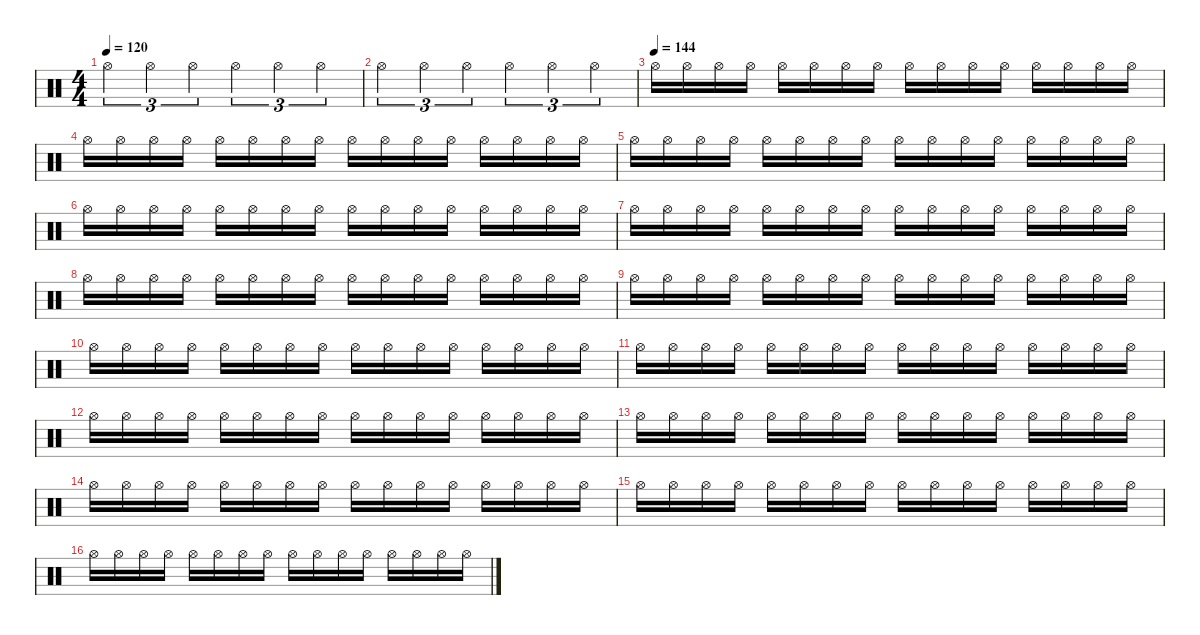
\defaultSystemsLayout 4
\hideDynamics
\bracketExtendMode nobrackets
\singleTrackTrackNamePolicy hidden
\multiTrackTrackNamePolicy hidden
\firstSystemTrackNameMode fullname
\firstSystemTrackNameOrientation horizontal
\otherSystemsTrackNameOrientation horizontal
\track ("Percussion" "drm.") {instrument percussion}
\staff {score}
\articulation defaults
\ts (4 4)
\tempo 120
\clef neutral
\ks c "Hi-Hat (open)".4{tu (3 2) dy f beam Down} "Hi-Hat (open)".4{tu (3 2) beam Down} "Hi-Hat (open)".4{tu (3 2) beam Down} "Hi-Hat (open)".4{tu (3 2) beam Down} "Hi-Hat (open)".4{tu (3 2) beam Down} "Hi-Hat (open)".4{tu (3 2) beam Down}
|
"Hi-Hat (open)".4{tu (3 2) beam Down} "Hi-Hat (open)".4{tu (3 2) beam Down} "Hi-Hat (open)".4{tu (3 2) beam Down} "Hi-Hat (open)".4{tu (3 2) beam Down} "Hi-Hat (open)".4{tu (3 2) beam Down} "Hi-Hat (open)".4{tu (3 2) beam Down} |
\tempo (144)
"Hi-Hat (open)".16{beam Down} "Hi-Hat (open)".16{beam Down} "Hi-Hat (open)".16{beam Down} "Hi-Hat (open)".16{beam Down} "Hi-Hat (open)".16{beam Down} "Hi-Hat (open)".16{beam Down} "Hi-Hat (open)".16{beam Down} "Hi-Hat (open)".16{beam Down} "Hi-Hat (open)".16{beam Down} "Hi-Hat (open)".16{beam Down} "Hi-Hat (open)".16{beam Down} "Hi-Hat (open)".16{beam Down} "Hi-Hat (open)".16{beam Down} "Hi-Hat (open)".16{beam Down} "Hi-Hat (open)".16{beam Down} "Hi-Hat (open)".16{beam Down} |
"Hi-Hat (open)".16{beam Down} "Hi-Hat (open)".16{beam Down} "Hi-Hat (open)".16{beam Down} "Hi-Hat (open)".16{beam Down} "Hi-Hat (open)".16{beam Down} "Hi-Hat (open)".16{beam Down} "Hi-Hat (open)".16{beam Down} "Hi-Hat (open)".16{beam Down} "Hi-Hat (open)".16{beam Down} "Hi-Hat (open)".16{beam Down} "Hi-Hat (open)".16{beam Down} "Hi-Hat (open)".16{beam Down} "Hi-Hat (open)".16{beam Down} "Hi-Hat (open)".16{beam Down} "Hi-Hat (open)".16{beam Down} "Hi-Hat (open)".16{beam Down} |
"Hi-Hat (open)".16{beam Down} "Hi-Hat (open)".16{beam Down} "Hi-Hat (open)".16{beam Down} "Hi-Hat (open)".16{beam Down} "Hi-Hat (open)".16{beam Down} "Hi-Hat (open)".16{beam Down} "Hi-Hat (open)".16{beam Down} "Hi-Hat (open)".16{beam Down} "Hi-Hat (open)".16{beam Down} "Hi-Hat (open)".16{beam Down} "Hi-Hat (open)".16{beam Down} "Hi-Hat (open)".16{beam Down} "Hi-Hat (open)".16{beam Down} "Hi-Hat (open)".16{beam Down} "Hi-Hat (open)".16{beam Down} "Hi-Hat (open)".16{beam Down} |
"Hi-Hat (open)".16{beam Down} "Hi-Hat (open)".16{beam Down} "Hi-Hat (open)".16{beam Down} "Hi-Hat (open)".16{beam Down} "Hi-Hat (open)".16{beam Down} "Hi-Hat (open)".16{beam Down} "Hi-Hat (open)".16{beam Down} "Hi-Hat (open)".16{beam Down} "Hi-Hat (open)".16{beam Down} "Hi-Hat (open)".16{beam Down} "Hi-Hat (open)".16{beam Down} "Hi-Hat (open)".16{beam Down} "Hi-Hat (open)".16{beam Down} "Hi-Hat (open)".16{beam Down} "Hi-Hat (open)".16{beam Down} "Hi-Hat (open)".16{beam Down} |
"Hi-Hat (open)".16{beam Down} "Hi-Hat (open)".16{beam Down} "Hi-Hat (open)".16{beam Down} "Hi-Hat (open)".16{beam Down} "Hi-Hat (open)".16{beam Down} "Hi-Hat (open)".16{beam Down} "Hi-Hat (open)".16{beam Down} "Hi-Hat (open)".16{beam Down} "Hi-Hat (open)".16{beam Down} "Hi-Hat (open)".16{beam Down} "Hi-Hat (open)".16{beam Down} "Hi-Hat (open)".16{beam Down} "Hi-Hat (open)".16{beam Down} "Hi-Hat (open)".16{beam Down} "Hi-Hat (open)".16{beam Down} "Hi-Hat (open)".16{beam Down} |
"Hi-Hat (open)".16{beam Down} "Hi-Hat (open)".16{beam Down} "Hi-Hat (open)".16{beam Down} "Hi-Hat (open)".16{beam Down} "Hi-Hat (open)".16{beam Down} "Hi-Hat (open)".16{beam Down} "Hi-Hat (open)".16{beam Down} "Hi-Hat (open)".16{beam Down} "Hi-Hat (open)".16{beam Down} "Hi-Hat (open)".16{beam Down} "Hi-Hat (open)".16{beam Down} "Hi-Hat (open)".16{beam Down} "Hi-Hat (open)".16{beam Down} "Hi-Hat (open)".16{beam Down} "Hi-Hat (open)".16{beam Down} "Hi-Hat (open)".16{beam Down} |
"Hi-Hat (open)".16{beam Down} "Hi-Hat (open)".16{beam Down} "Hi-Hat (open)".16{beam Down} "Hi-Hat (open)".16{beam Down} "Hi-Hat (open)".16{beam Down} "Hi-Hat (open)".16{beam Down} "Hi-Hat (open)".16{beam Down} "Hi-Hat (open)".16{beam Down} "Hi-Hat (open)".16{beam Down} "Hi-Hat (open)".16{beam Down} "Hi-Hat (open)".16{beam Down} "Hi-Hat (open)".16{beam Down} "Hi-Hat (open)".16{beam Down} "Hi-Hat (open)".16{beam Down} "Hi-Hat (open)".16{beam Down} "Hi-Hat (open)".16{beam Down} |
"Hi-Hat (open)".16{beam Down} "Hi-Hat (open)".16{beam Down} "Hi-Hat (open)".16{beam Down} "Hi-Hat (open)".16{beam Down} "Hi-Hat (open)".16{beam Down} "Hi-Hat (open)".16{beam Down} "Hi-Hat (open)".16{beam Down} "Hi-Hat (open)".16{beam Down} "Hi-Hat (open)".16{beam Down} "Hi-Hat (open)".16{beam Down} "Hi-Hat (open)".16{beam Down} "Hi-Hat (open)".16{beam Down} "Hi-Hat (open)".16{beam Down} "Hi-Hat (open)".16{beam Down} "Hi-Hat (open)".16{beam Down} "Hi-Hat (open)".16{beam Down} |
"Hi-Hat (open)".16{beam Down} "Hi-Hat (open)".16{beam Down} "Hi-Hat (open)".16{beam Down} "Hi-Hat (open)".16{beam Down} "Hi-Hat (open)".16{beam Down} "Hi-Hat (open)".16{beam Down} "Hi-Hat (open)".16{beam Down} "Hi-Hat (open)".16{beam Down} "Hi-Hat (open)".16{beam Down} "Hi-Hat (open)".16{beam Down} "Hi-Hat (open)".16{beam Down} "Hi-Hat (open)".16{beam Down} "Hi-Hat (open)".16{beam Down} "Hi-Hat (open)".16{beam Down} "Hi-Hat (open)".16{beam Down} "Hi-Hat (open)".16{beam Down} |
"Hi-Hat (open)".16{beam Down} "Hi-Hat (open)".16{beam Down} "Hi-Hat (open)".16{beam Down} "Hi-Hat (open)".16{beam Down} "Hi-Hat (open)".16{beam Down} "Hi-Hat (open)".16{beam Down} "Hi-Hat (open)".16{beam Down} "Hi-Hat (open)".16{beam Down} "Hi-Hat (open)".16{beam Down} "Hi-Hat (open)".16{beam Down} "Hi-Hat (open)".16{beam Down} "Hi-Hat (open)".16{beam Down} "Hi-Hat (open)".16{beam Down} "Hi-Hat (open)".16{beam Down} "Hi-Hat (open)".16{beam Down} "Hi-Hat (open)".16{beam Down} |
"Hi-Hat (open)".16{beam Down} "Hi-Hat (open)".16{beam Down} "Hi-Hat (open)".16{beam Down} "Hi-Hat (open)".16{beam Down} "Hi-Hat (open)".16{beam Down} "Hi-Hat (open)".16{beam Down} "Hi-Hat (open)".16{beam Down} "Hi-Hat (open)".16{beam Down} "Hi-Hat (open)".16{beam Down} "Hi-Hat (open)".16{beam Down} "Hi-Hat (open)".16{beam Down} "Hi-Hat (open)".16{beam Down} "Hi-Hat (open)".16{beam Down} "Hi-Hat (open)".16{beam Down} "Hi-Hat (open)".16{beam Down} "Hi-Hat (open)".16{beam Down} |
"Hi-Hat (open)".16{beam Down} "Hi-Hat (open)".16{beam Down} "Hi-Hat (open)".16{beam Down} "Hi-Hat (open)".16{beam Down} "Hi-Hat (open)".16{beam Down} "Hi-Hat (open)".16{beam Down} "Hi-Hat (open)".16{beam Down} "Hi-Hat (open)".16{beam Down} "Hi-Hat (open)".16{beam Down} "Hi-Hat (open)".16{beam Down} "Hi-Hat (open)".16{beam Down} "Hi-Hat (open)".16{beam Down} "Hi-Hat (open)".16{beam Down} "Hi-Hat (open)".16{beam Down} "Hi-Hat (open)".16{beam Down} "Hi-Hat (open)".16{beam Down} |
"Hi-Hat (open)".16{beam Down} "Hi-Hat (open)".16{beam Down} "Hi-Hat (open)".16{beam Down} "Hi-Hat (open)".16{beam Down} "Hi-Hat (open)".16{beam Down} "Hi-Hat (open)".16{beam Down} "Hi-Hat (open)".16{beam Down} "Hi-Hat (open)".16{beam Down} "Hi-Hat (open)".16{beam Down} "Hi-Hat (open)".16{beam Down} "Hi-Hat (open)".16{beam Down} "Hi-Hat (open)".16{beam Down} "Hi-Hat (open)".16{beam Down} "Hi-Hat (open)".16{beam Down} "Hi-Hat (open)".16{beam Down} "Hi-Hat (open)".16{beam Down} |
"Hi-Hat (open)".16{beam Down} "Hi-Hat (open)".16{beam Down} "Hi-Hat (open)".16{beam Down} "Hi-Hat (open)".16{beam Down} "Hi-Hat (open)".16{beam Down} "Hi-Hat (open)".16{beam Down} "Hi-Hat (open)".16{beam Down} "Hi-Hat (open)".16{beam Down} "Hi-Hat (open)".16{beam Down} "Hi-Hat (open)".16{beam Down} "Hi-Hat (open)".16{beam Down} "Hi-Hat (open)".16{beam Down} "Hi-Hat (open)".16{beam Down} "Hi-Hat (open)".16{beam Down} "Hi-Hat (open)".16{beam Down} "Hi-Hat (open)".16{beam Down}
